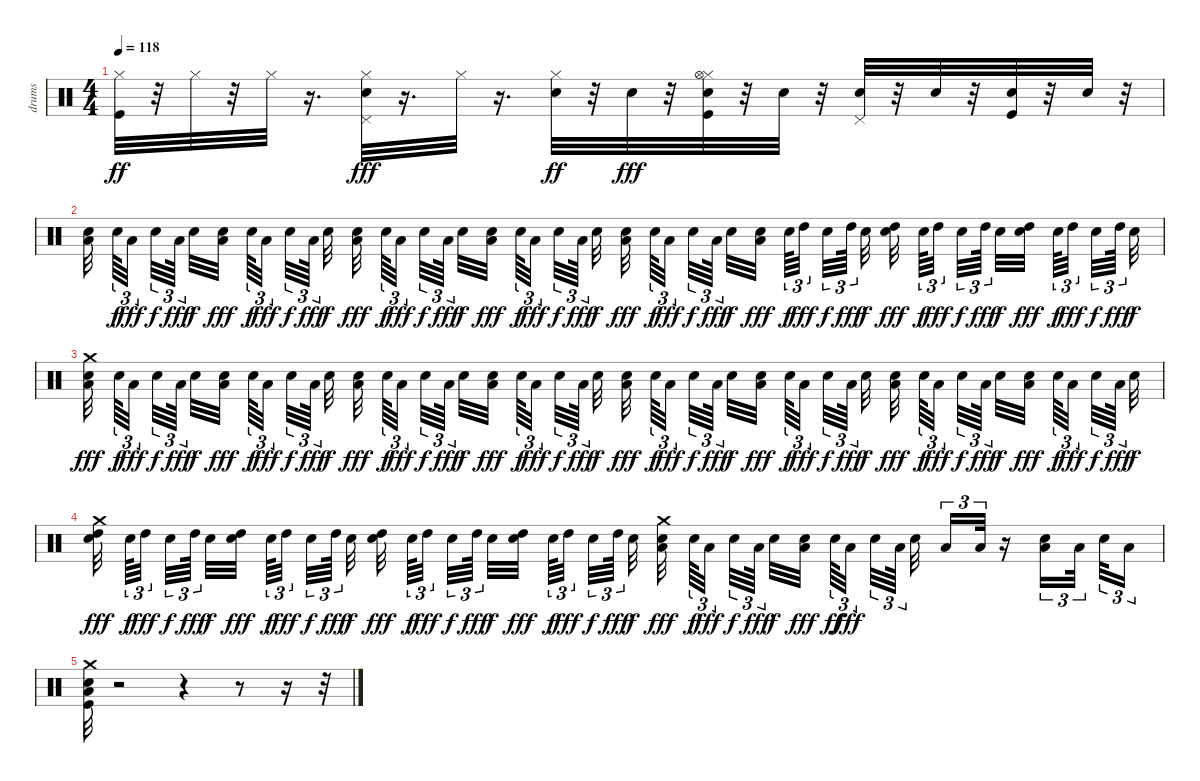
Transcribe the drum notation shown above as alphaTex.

\track ("drums   " "drums   ") {instrument percussion}
\staff {score}
\articulation defaults
\ts (4 4)
\tempo 118
\clef neutral
\ks c
("Kick (hit)" "Hi-Hat (closed)").32{dy ff} r.32 "Hi-Hat (closed)".32 r.32 "Hi-Hat (closed)".32 r.16{d} ("Electric Snare (hit)" "Hi-Hat (closed)" "Pedal Hi-Hat (hit)").32{dy fff} r.16{d} "Hi-Hat (closed)".32 r.16{d} ("Electric Snare (hit)" "Hi-Hat (closed)").32{dy ff} r.32 "Electric Snare (hit)".32{dy fff} r.32 ("Kick (hit)" "Electric Snare (hit)" "Hi-Hat (closed)" "Hi-Hat (open)").32 r.32 "Electric Snare (hit)".32 r.32 ("Electric Snare (hit)" "Pedal Hi-Hat (hit)").32 r.32 "Electric Snare (hit)".32 r.32 ("Kick (hit)" "Electric Snare (hit)").32 r.32 "Electric Snare (hit)".32 r.32 |
("Electric Snare (hit)" "Low Floor Tom (hit)").32 "Electric Snare (hit)".64{tu (3 2) dy f} "Low Floor Tom (hit)".32{tu (3 2) dy fff} "Electric Snare (hit)".32{tu (3 2) dy f} "Low Floor Tom (hit)".64{tu (3 2) dy fff} "Electric Snare (hit)".32{dy f} ("Electric Snare (hit)" "Low Floor Tom (hit)").32{dy fff} "Electric Snare (hit)".64{tu (3 2) dy f} "Low Floor Tom (hit)".32{tu (3 2) dy fff} "Electric Snare (hit)".32{tu (3 2) dy f} "Low Floor Tom (hit)".64{tu (3 2) dy fff} "Electric Snare (hit)".32{dy f} ("Electric Snare (hit)" "Low Floor Tom (hit)").32{dy fff} "Electric Snare (hit)".64{tu (3 2) dy f} "Low Floor Tom (hit)".32{tu (3 2) dy fff} "Electric Snare (hit)".32{tu (3 2) dy f} "Low Tom (hit)".64{tu (3 2) dy fff} "Electric Snare (hit)".32{dy f} ("Electric Snare (hit)" "Low Tom (hit)").32{dy fff} "Electric Snare (hit)".64{tu (3 2) dy f} "Low Tom (hit)".32{tu (3 2) dy fff} "Electric Snare (hit)".32{tu (3 2) dy f} "Low Tom (hit)".64{tu (3 2) dy fff} "Electric Snare (hit)".32{dy f} ("Electric Snare (hit)" "Low Tom (hit)").32{dy fff} "Electric Snare (hit)".64{tu (3 2) dy f} "Low Tom (hit)".32{tu (3 2) dy fff} "Electric Snare (hit)".32{tu (3 2) dy f} "Low Tom (hit)".64{tu (3 2) dy fff} "Electric Snare (hit)".32{dy f} ("Electric Snare (hit)" "Low Tom (hit)").32{dy fff} "Electric Snare (hit)".64{tu (3 2) dy f} "High Tom (hit)".32{tu (3 2) dy fff} "Electric Snare (hit)".32{tu (3 2) dy f} "High Tom (hit)".64{tu (3 2) dy fff} "Electric Snare (hit)".32{dy f} ("Electric Snare (hit)" "High Tom (hit)").32{dy fff} "Electric Snare (hit)".64{tu (3 2) dy f} "High Tom (hit)".32{tu (3 2) dy fff} "Electric Snare (hit)".32{tu (3 2) dy f} "High Tom (hit)".64{tu (3 2) dy fff} "Electric Snare (hit)".32{dy f} ("Electric Snare (hit)" "High Tom (hit)").32{dy fff} "Electric Snare (hit)".64{tu (3 2) dy f} "High Tom (hit)".32{tu (3 2) dy fff} "Electric Snare (hit)".32{tu (3 2) dy f} "High Tom (hit)".64{tu (3 2) dy fff} "Electric Snare (hit)".32{dy f} |
("Electric Snare (hit)" "Low Tom (hit)" "Crash medium (hit)").32{dy fff} "Electric Snare (hit)".64{tu (3 2) dy f} "Low Tom (hit)".32{tu (3 2) dy fff} "Electric Snare (hit)".32{tu (3 2) dy f} "Low Tom (hit)".64{tu (3 2) dy fff} "Electric Snare (hit)".32{dy f} ("Electric Snare (hit)" "Low Tom (hit)").32{dy fff} "Electric Snare (hit)".64{tu (3 2) dy f} "Low Tom (hit)".32{tu (3 2) dy fff} "Electric Snare (hit)".32{tu (3 2) dy f} "Low Tom (hit)".64{tu (3 2) dy fff} "Electric Snare (hit)".32{dy f} ("Electric Snare (hit)" "Low Tom (hit)").32{dy fff} "Electric Snare (hit)".64{tu (3 2) dy f} "Low Tom (hit)".32{tu (3 2) dy fff} "Electric Snare (hit)".32{tu (3 2) dy f} "Low Floor Tom (hit)".64{tu (3 2) dy fff} "Electric Snare (hit)".32{dy f} ("Electric Snare (hit)" "Low Floor Tom (hit)").32{dy fff} "Electric Snare (hit)".64{tu (3 2) dy f} "Low Floor Tom (hit)".32{tu (3 2) dy fff} "Electric Snare (hit)".32{tu (3 2) dy f} "Low Floor Tom (hit)".64{tu (3 2) dy fff} "Electric Snare (hit)".32{dy f} ("Electric Snare (hit)" "Low Floor Tom (hit)").32{dy fff} "Electric Snare (hit)".64{tu (3 2) dy f} "Low Floor Tom (hit)".32{tu (3 2) dy fff} "Electric Snare (hit)".32{tu (3 2) dy f} "Low Floor Tom (hit)".64{tu (3 2) dy fff} "Electric Snare (hit)".32{dy f} ("Electric Snare (hit)" "Low Floor Tom (hit)").32{dy fff} "Electric Snare (hit)".64{tu (3 2) dy f} "Low Tom (hit)".32{tu (3 2) dy fff} "Electric Snare (hit)".32{tu (3 2) dy f} "Low Tom (hit)".64{tu (3 2) dy fff} "Electric Snare (hit)".32{dy f} ("Electric Snare (hit)" "Low Tom (hit)").32{dy fff} "Electric Snare (hit)".64{tu (3 2) dy f} "Low Tom (hit)".32{tu (3 2) dy fff} "Electric Snare (hit)".32{tu (3 2) dy f} "Low Tom (hit)".64{tu (3 2) dy fff} "Electric Snare (hit)".32{dy f} ("Electric Snare (hit)" "Low Tom (hit)").32{dy fff} "Electric Snare (hit)".64{tu (3 2) dy f} "Low Tom (hit)".32{tu (3 2) dy fff} "Electric Snare (hit)".32{tu (3 2) dy f} "Low Tom (hit)".64{tu (3 2) dy fff} "Electric Snare (hit)".32{dy f} |
("Electric Snare (hit)" "High Tom (hit)" "Crash medium (hit)").32{dy fff} "Electric Snare (hit)".64{tu (3 2) dy f} "High Tom (hit)".32{tu (3 2) dy fff} "Electric Snare (hit)".32{tu (3 2) dy f} "High Tom (hit)".64{tu (3 2) dy fff} "Electric Snare (hit)".32{dy f} ("Electric Snare (hit)" "High Tom (hit)").32{dy fff} "Electric Snare (hit)".64{tu (3 2) dy f} "High Tom (hit)".32{tu (3 2) dy fff} "Electric Snare (hit)".32{tu (3 2) dy f} "High Tom (hit)".64{tu (3 2) dy fff} "Electric Snare (hit)".32{dy f} ("Electric Snare (hit)" "High Tom (hit)").32{dy fff} "Electric Snare (hit)".64{tu (3 2) dy f} "High Tom (hit)".32{tu (3 2) dy fff} "Electric Snare (hit)".32{tu (3 2) dy f} "High Tom (hit)".64{tu (3 2) dy fff} "Electric Snare (hit)".32{dy f} ("Electric Snare (hit)" "High Tom (hit)").32{dy fff} "Electric Snare (hit)".64{tu (3 2) dy f} "High Tom (hit)".32{tu (3 2) dy fff} "Electric Snare (hit)".32{tu (3 2) dy f} "High Tom (hit)".64{tu (3 2) dy fff} "Electric Snare (hit)".32{dy f} ("Electric Snare (hit)" "Low Tom (hit)" "Crash medium (hit)").32{dy fff} "Electric Snare (hit)".64{tu (3 2) dy f} "Low Tom (hit)".32{tu (3 2) dy fff} "Electric Snare (hit)".32{tu (3 2) dy f} "Low Tom (hit)".64{tu (3 2) dy fff} "Electric Snare (hit)".32{dy f} ("Electric Snare (hit)" "Low Tom (hit)").32{dy fff} "Electric Snare (hit)".64{tu (3 2) dy ff} "Low Tom (hit)".32{tu (3 2) dy fff} "Electric Snare (hit)".32{tu (3 2)} "Low Tom (hit)".64{tu (3 2)} "Electric Snare (hit)".32 "Low Tom (hit)".16{tu (3 2)} "Low Tom (hit)".32{tu (3 2)} r.16 ("Electric Snare (hit)" "Low Floor Tom (hit)").16{tu (3 2)} "Low Floor Tom (hit)".32{tu (3 2)} "Electric Snare (hit)".32{tu (3 2)} "Low Floor Tom (hit)".16{tu (3 2)} |
("Kick (hit)" "Electric Snare (hit)" "Low Floor Tom (hit)" "Crash medium (hit)").32 r.2 r.4 r.8 r.16 r.32
